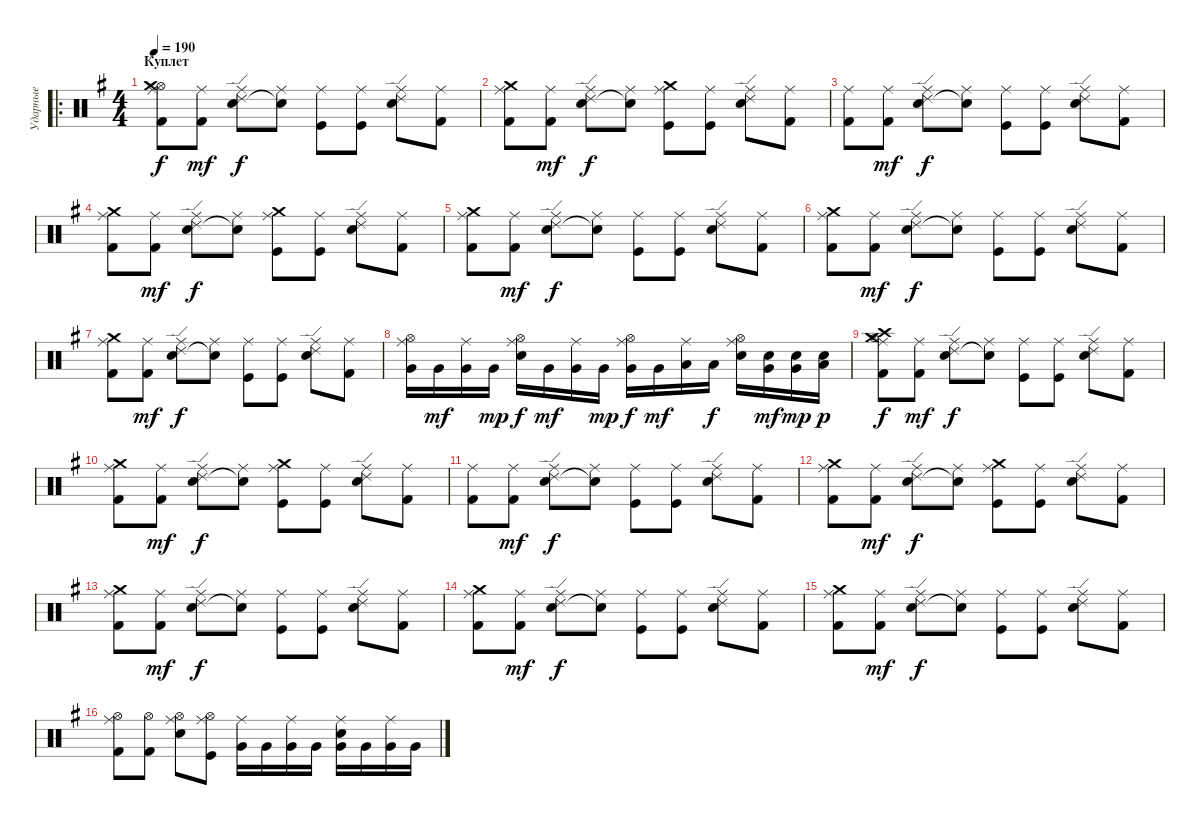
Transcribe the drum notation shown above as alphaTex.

\track ("Ударные" "Ударные") {instrument percussion}
\staff {score}
\articulation defaults
\ro
\ts (4 4)
\section ("" "Куплет")
\tempo 190
\clef neutral
\ks g
("Kick (hit) 2" "Hi-Hat (open)" "Ride (middle)" "Crash medium (hit)").8{dy f} ("Kick (hit) 2" "Ride (middle)").8{dy mf} ("Snare (hit) 2" "Ride (edge) 2" "Ride (middle)").8{dy f} ("Snare (hit)"{t} "Ride (middle)").8 ("Kick (hit)" "Ride (middle)").8 ("Kick (hit)" "Ride (middle)").8 ("Snare (hit) 2" "Ride (edge) 2" "Ride (middle)").8 ("Kick (hit) 2" "Ride (middle)").8 |
("Kick (hit) 2" "Ride (middle)" "Crash medium (hit)").8 ("Kick (hit) 2" "Ride (middle)").8{dy mf} ("Snare (hit) 2" "Ride (edge) 2" "Ride (middle)").8{dy f} ("Snare (hit)"{t} "Ride (middle)").8 ("Kick (hit)" "Ride (middle)" "Crash medium (hit)").8 ("Kick (hit)" "Ride (middle)").8 ("Snare (hit) 2" "Ride (edge) 2" "Ride (middle)").8 ("Kick (hit) 2" "Ride (middle)").8 |
("Kick (hit) 2" "Ride (middle)").8 ("Kick (hit) 2" "Ride (middle)").8{dy mf} ("Snare (hit) 2" "Ride (edge) 2" "Ride (middle)").8{dy f} ("Snare (hit)"{t} "Ride (middle)").8 ("Kick (hit)" "Ride (middle)").8 ("Kick (hit)" "Ride (middle)").8 ("Snare (hit) 2" "Ride (edge) 2" "Ride (middle)").8 ("Kick (hit) 2" "Ride (middle)").8 |
("Kick (hit) 2" "Ride (middle)" "Crash medium (hit)").8 ("Kick (hit) 2" "Ride (middle)").8{dy mf} ("Snare (hit) 2" "Ride (edge) 2" "Ride (middle)").8{dy f} ("Snare (hit)"{t} "Ride (middle)").8 ("Kick (hit)" "Ride (middle)" "Crash medium (hit)").8 ("Kick (hit)" "Ride (middle)").8 ("Snare (hit) 2" "Ride (edge) 2" "Ride (middle)").8 ("Kick (hit) 2" "Ride (middle)").8 |
("Kick (hit) 2" "Ride (middle)" "Crash medium (hit)").8 ("Kick (hit) 2" "Ride (middle)").8{dy mf} ("Snare (hit) 2" "Ride (edge) 2" "Ride (middle)").8{dy f} ("Snare (hit)"{t} "Ride (middle)").8 ("Kick (hit)" "Ride (middle)").8 ("Kick (hit)" "Ride (middle)").8 ("Snare (hit) 2" "Ride (edge) 2" "Ride (middle)").8 ("Kick (hit) 2" "Ride (middle)").8 |
("Kick (hit) 2" "Ride (middle)" "Crash medium (hit)").8 ("Kick (hit) 2" "Ride (middle)").8{dy mf} ("Snare (hit) 2" "Ride (edge) 2" "Ride (middle)").8{dy f} ("Snare (hit)"{t} "Ride (middle)").8 ("Kick (hit)" "Ride (middle)").8 ("Kick (hit)" "Ride (middle)").8 ("Snare (hit) 2" "Ride (edge) 2" "Ride (middle)").8 ("Kick (hit) 2" "Ride (middle)").8 |
("Kick (hit) 2" "Ride (middle)" "Crash medium (hit)").8 ("Kick (hit) 2" "Ride (middle)").8{dy mf} ("Snare (hit) 2" "Ride (edge) 2" "Ride (middle)").8{dy f} ("Snare (hit)"{t} "Ride (middle)").8 ("Kick (hit)" "Ride (middle)").8 ("Kick (hit)" "Ride (middle)").8 ("Snare (hit) 2" "Ride (edge) 2" "Ride (middle)").8 ("Kick (hit) 2" "Ride (middle)").8 |
("Very Low Tom (hit)" "Hi-Hat (open)" "Ride (middle)").16 "Very Low Tom (hit)".16{dy mf} ("Very Low Tom (hit)" "Ride (middle)").16 "Very Low Tom (hit)".16{dy mp} ("Snare (hit) 2" "Hi-Hat (open)" "Ride (middle)").16{dy f} "Very Low Tom (hit)".16{dy mf} ("Very Low Tom (hit)" "Ride (middle)").16 "Very Low Tom (hit)".16{dy mp} ("Very Low Tom (hit)" "Hi-Hat (open)" "Ride (middle)").16{dy f} "Very Low Tom (hit)".16{dy mf} ("Low Tom (hit)" "Ride (middle)").16 "Low Tom (hit)".16{dy f} ("Snare (hit) 2" "Hi-Hat (open)" "Ride (middle)").16 ("Very Low Tom (hit)" "Snare (hit) 2").16{dy mf} ("Very Low Tom (hit)" "Snare (hit) 2").16{dy mp} ("Low Tom (hit)" "Snare (hit) 2").16{dy p} |
("Kick (hit) 2" "Hi-Hat (open)" "Ride (middle)" "Crash medium (hit)" "Crash high (hit)").8{dy f} ("Kick (hit) 2" "Ride (middle)").8{dy mf} ("Snare (hit) 2" "Ride (edge) 2" "Ride (middle)").8{dy f} ("Snare (hit)"{t} "Ride (middle)").8 ("Kick (hit)" "Ride (middle)").8 ("Kick (hit)" "Ride (middle)").8 ("Snare (hit) 2" "Ride (edge) 2" "Ride (middle)").8 ("Kick (hit) 2" "Ride (middle)").8 |
("Kick (hit) 2" "Ride (middle)" "Crash medium (hit)").8 ("Kick (hit) 2" "Ride (middle)").8{dy mf} ("Snare (hit) 2" "Ride (edge) 2" "Ride (middle)").8{dy f} ("Snare (hit)"{t} "Ride (middle)").8 ("Kick (hit)" "Ride (middle)" "Crash medium (hit)").8 ("Kick (hit)" "Ride (middle)").8 ("Snare (hit) 2" "Ride (edge) 2" "Ride (middle)").8 ("Kick (hit) 2" "Ride (middle)").8 |
("Kick (hit) 2" "Ride (middle)").8 ("Kick (hit) 2" "Ride (middle)").8{dy mf} ("Snare (hit) 2" "Ride (edge) 2" "Ride (middle)").8{dy f} ("Snare (hit)"{t} "Ride (middle)").8 ("Kick (hit)" "Ride (middle)").8 ("Kick (hit)" "Ride (middle)").8 ("Snare (hit) 2" "Ride (edge) 2" "Ride (middle)").8 ("Kick (hit) 2" "Ride (middle)").8 |
("Kick (hit) 2" "Ride (middle)" "Crash medium (hit)").8 ("Kick (hit) 2" "Ride (middle)").8{dy mf} ("Snare (hit) 2" "Ride (edge) 2" "Ride (middle)").8{dy f} ("Snare (hit)"{t} "Ride (middle)").8 ("Kick (hit)" "Ride (middle)" "Crash medium (hit)").8 ("Kick (hit)" "Ride (middle)").8 ("Snare (hit) 2" "Ride (edge) 2" "Ride (middle)").8 ("Kick (hit) 2" "Ride (middle)").8 |
("Kick (hit) 2" "Ride (middle)" "Crash medium (hit)").8 ("Kick (hit) 2" "Ride (middle)").8{dy mf} ("Snare (hit) 2" "Ride (edge) 2" "Ride (middle)").8{dy f} ("Snare (hit)"{t} "Ride (middle)").8 ("Kick (hit)" "Ride (middle)").8 ("Kick (hit)" "Ride (middle)").8 ("Snare (hit) 2" "Ride (edge) 2" "Ride (middle)").8 ("Kick (hit) 2" "Ride (middle)").8 |
("Kick (hit) 2" "Ride (middle)" "Crash medium (hit)").8 ("Kick (hit) 2" "Ride (middle)").8{dy mf} ("Snare (hit) 2" "Ride (edge) 2" "Ride (middle)").8{dy f} ("Snare (hit)"{t} "Ride (middle)").8 ("Kick (hit)" "Ride (middle)").8 ("Kick (hit)" "Ride (middle)").8 ("Snare (hit) 2" "Ride (edge) 2" "Ride (middle)").8 ("Kick (hit) 2" "Ride (middle)").8 |
("Kick (hit) 2" "Ride (middle)" "Crash medium (hit)").8 ("Kick (hit) 2" "Ride (middle)").8{dy mf} ("Snare (hit) 2" "Ride (edge) 2" "Ride (middle)").8{dy f} ("Snare (hit)"{t} "Ride (middle)").8 ("Kick (hit)" "Ride (middle)").8 ("Kick (hit)" "Ride (middle)").8 ("Snare (hit) 2" "Ride (edge) 2" "Ride (middle)").8 ("Kick (hit) 2" "Ride (middle)").8 |
("Hi-Hat (open)" "Kick (hit) 2" "Ride (middle)").8 ("Hi-Hat (open)" "Kick (hit) 2").8 ("Hi-Hat (open)" "Snare (hit) 2" "Ride (middle)").8 ("Hi-Hat (open)" "Kick (hit)" "Ride (middle)").8 ("Very Low Tom (hit)" "Ride (middle)").16 "Very Low Tom (hit)".16 ("Very Low Tom (hit)" "Ride (middle)").16 "Very Low Tom (hit)".16 ("Snare (hit) 2" "Very Low Tom (hit)" "Ride (middle)").16 "Very Low Tom (hit)".16 ("Very Low Tom (hit)" "Ride (middle)").16 "Very Low Tom (hit)".16
